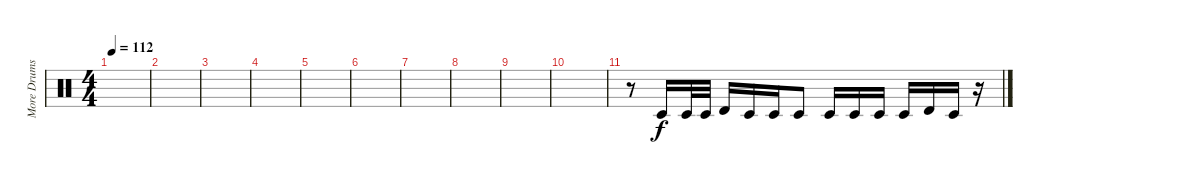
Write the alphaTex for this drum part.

\track ("More Drums" "More Drums") {instrument percussion}
\staff {score}
\articulation defaults
\ts (4 4)
\tempo 112
\clef neutral
\ks c
|
|
|
|
|
|
|
|
|
|
r.8 "Timbale low (hit)".16 "Timbale low (hit)".32 "Timbale low (hit)".32 "Timbale high (hit)".16 "Timbale low (hit)".16 "Timbale low (hit)".16 "Timbale low (hit)".8 "Timbale low (hit)".16 "Timbale low (hit)".16 "Timbale low (hit)".16 "Timbale low (hit)".16 "Timbale high (hit)".16 "Timbale low (hit)".16 r.16
